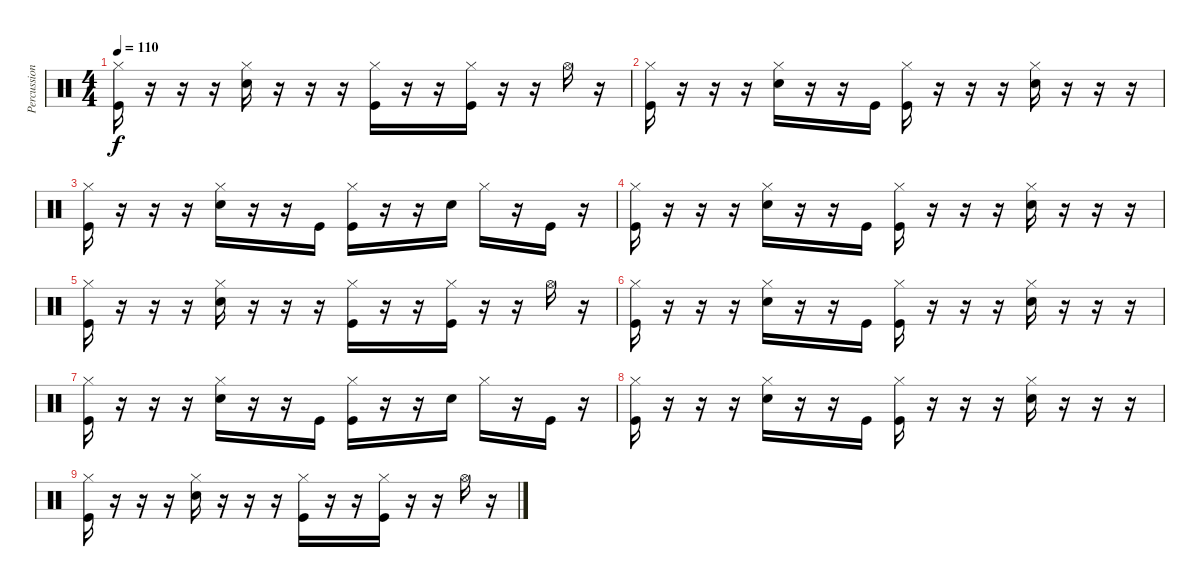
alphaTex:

\track ("Percussion" "Percussion") {instrument percussion}
\staff {score}
\articulation defaults
\ts (4 4)
\tempo 110
\clef neutral
\ks c
("Hi-Hat (closed)" "Kick (hit)").16{dy f} r.16 r.16 r.16 ("Hi-Hat (closed)" "Snare (hit) 2").16 r.16 r.16 r.16 ("Hi-Hat (closed)" "Kick (hit)").16 r.16 r.16 ("Hi-Hat (closed)" "Kick (hit)").16 r.16 r.16 "Hi-Hat (open)".16 r.16 |
("Hi-Hat (closed)" "Kick (hit)").16 r.16 r.16 r.16 ("Hi-Hat (closed)" "Snare (hit) 2").16 r.16 r.16 "Kick (hit)".16 ("Hi-Hat (closed)" "Kick (hit)").16 r.16 r.16 r.16 ("Hi-Hat (closed)" "Snare (hit) 2").16 r.16 r.16 r.16 |
("Hi-Hat (closed)" "Kick (hit)").16 r.16 r.16 r.16 ("Hi-Hat (closed)" "Snare (hit) 2").16 r.16 r.16 "Kick (hit)".16 ("Hi-Hat (closed)" "Kick (hit)").16 r.16 r.16 "Snare (hit) 2".16 "Hi-Hat (closed)".16 r.16 "Kick (hit)".16 r.16 |
("Hi-Hat (closed)" "Kick (hit)").16 r.16 r.16 r.16 ("Hi-Hat (closed)" "Snare (hit) 2").16 r.16 r.16 "Kick (hit)".16 ("Hi-Hat (closed)" "Kick (hit)").16 r.16 r.16 r.16 ("Hi-Hat (closed)" "Snare (hit) 2").16 r.16 r.16 r.16 |
("Hi-Hat (closed)" "Kick (hit)").16 r.16 r.16 r.16 ("Hi-Hat (closed)" "Snare (hit) 2").16 r.16 r.16 r.16 ("Hi-Hat (closed)" "Kick (hit)").16 r.16 r.16 ("Hi-Hat (closed)" "Kick (hit)").16 r.16 r.16 "Hi-Hat (open)".16 r.16 |
("Hi-Hat (closed)" "Kick (hit)").16 r.16 r.16 r.16 ("Hi-Hat (closed)" "Snare (hit) 2").16 r.16 r.16 "Kick (hit)".16 ("Hi-Hat (closed)" "Kick (hit)").16 r.16 r.16 r.16 ("Hi-Hat (closed)" "Snare (hit) 2").16 r.16 r.16 r.16 |
("Hi-Hat (closed)" "Kick (hit)").16 r.16 r.16 r.16 ("Hi-Hat (closed)" "Snare (hit) 2").16 r.16 r.16 "Kick (hit)".16 ("Hi-Hat (closed)" "Kick (hit)").16 r.16 r.16 "Snare (hit) 2".16 "Hi-Hat (closed)".16 r.16 "Kick (hit)".16 r.16 |
("Hi-Hat (closed)" "Kick (hit)").16 r.16 r.16 r.16 ("Hi-Hat (closed)" "Snare (hit) 2").16 r.16 r.16 "Kick (hit)".16 ("Hi-Hat (closed)" "Kick (hit)").16 r.16 r.16 r.16 ("Hi-Hat (closed)" "Snare (hit) 2").16 r.16 r.16 r.16 |
("Hi-Hat (closed)" "Kick (hit)").16 r.16 r.16 r.16 ("Hi-Hat (closed)" "Snare (hit) 2").16 r.16 r.16 r.16 ("Hi-Hat (closed)" "Kick (hit)").16 r.16 r.16 ("Hi-Hat (closed)" "Kick (hit)").16 r.16 r.16 "Hi-Hat (open)".16 r.16
